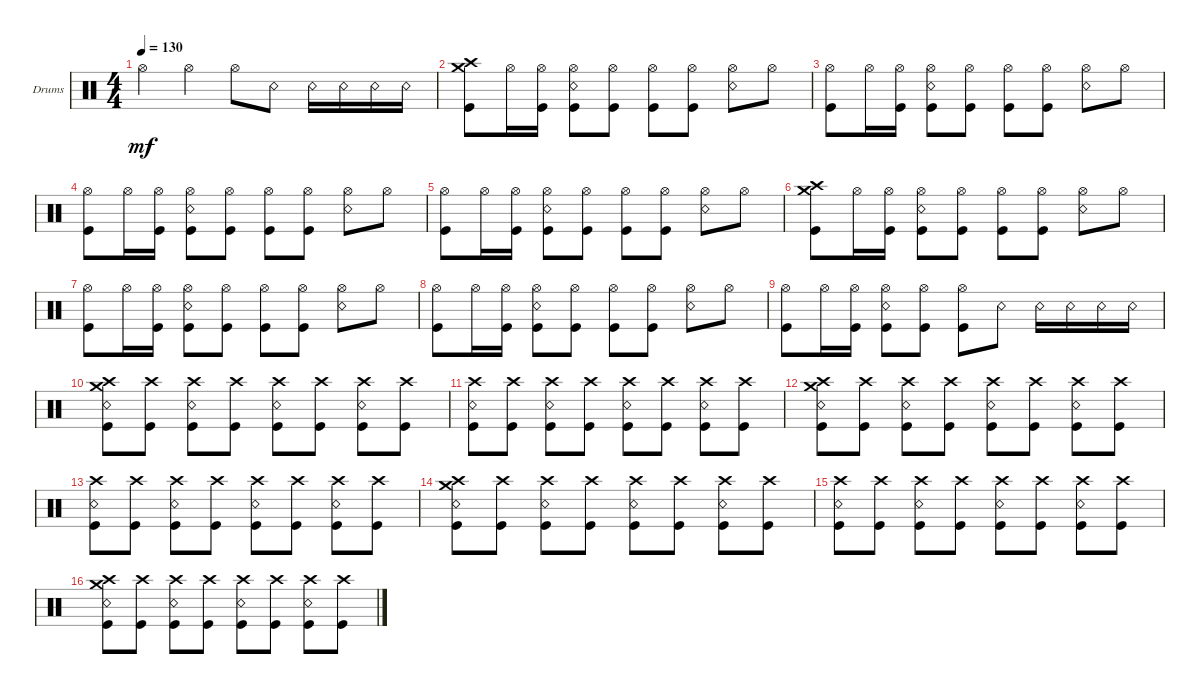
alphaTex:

\defaultSystemsLayout 4
\bracketExtendMode groupsimilarinstruments
\firstSystemTrackNameOrientation horizontal
\otherSystemsTrackNameOrientation horizontal
\track ("Drumkit" "Drums") {instrument percussion}
\staff {score}
\articulation defaults
\ts (4 4)
\tempo 130
\clef neutral
\ks c "Hi-Hat (open)".4{dy mf} "Hi-Hat (open)".4 "Hi-Hat (open)".8 "Snare (rim shot)".8 "Snare (rim shot)".16 "Snare (rim shot)".16 "Snare (rim shot)".16 "Snare (rim shot)".16
|
("Crash medium (hit)" "Crash high (hit)" "Kick (hit)").8 "Hi-Hat (open)".16 ("Hi-Hat (open)" "Kick (hit)").16 ("Hi-Hat (open)" "Kick (hit)" "Snare (rim shot)").8 ("Hi-Hat (open)" "Kick (hit)").8 ("Kick (hit)" "Hi-Hat (open)").8 ("Kick (hit)" "Hi-Hat (open)").8 ("Hi-Hat (open)" "Snare (rim shot)").8 "Hi-Hat (open)".8 |
("Kick (hit)" "Hi-Hat (open)").8 "Hi-Hat (open)".16 ("Hi-Hat (open)" "Kick (hit)").16 ("Hi-Hat (open)" "Kick (hit)" "Snare (rim shot)").8 ("Hi-Hat (open)" "Kick (hit)").8 ("Kick (hit)" "Hi-Hat (open)").8 ("Kick (hit)" "Hi-Hat (open)").8 ("Hi-Hat (open)" "Snare (rim shot)").8 "Hi-Hat (open)".8 |
("Kick (hit)" "Hi-Hat (open)").8 "Hi-Hat (open)".16 ("Hi-Hat (open)" "Kick (hit)").16 ("Hi-Hat (open)" "Kick (hit)" "Snare (rim shot)").8 ("Hi-Hat (open)" "Kick (hit)").8 ("Kick (hit)" "Hi-Hat (open)").8 ("Kick (hit)" "Hi-Hat (open)").8 ("Hi-Hat (open)" "Snare (rim shot)").8 "Hi-Hat (open)".8 |
("Kick (hit)" "Hi-Hat (open)").8 "Hi-Hat (open)".16 ("Hi-Hat (open)" "Kick (hit)").16 ("Hi-Hat (open)" "Kick (hit)" "Snare (rim shot)").8 ("Hi-Hat (open)" "Kick (hit)").8 ("Kick (hit)" "Hi-Hat (open)").8 ("Kick (hit)" "Hi-Hat (open)").8 ("Hi-Hat (open)" "Snare (rim shot)").8 "Hi-Hat (open)".8 |
("Crash medium (hit)" "Crash high (hit)" "Kick (hit)").8 "Hi-Hat (open)".16 ("Hi-Hat (open)" "Kick (hit)").16 ("Hi-Hat (open)" "Kick (hit)" "Snare (rim shot)").8 ("Hi-Hat (open)" "Kick (hit)").8 ("Kick (hit)" "Hi-Hat (open)").8 ("Kick (hit)" "Hi-Hat (open)").8 ("Hi-Hat (open)" "Snare (rim shot)").8 "Hi-Hat (open)".8 |
("Kick (hit)" "Hi-Hat (open)").8 "Hi-Hat (open)".16 ("Hi-Hat (open)" "Kick (hit)").16 ("Hi-Hat (open)" "Kick (hit)" "Snare (rim shot)").8 ("Hi-Hat (open)" "Kick (hit)").8 ("Kick (hit)" "Hi-Hat (open)").8 ("Kick (hit)" "Hi-Hat (open)").8 ("Hi-Hat (open)" "Snare (rim shot)").8 "Hi-Hat (open)".8 |
("Kick (hit)" "Hi-Hat (open)").8 "Hi-Hat (open)".16 ("Hi-Hat (open)" "Kick (hit)").16 ("Hi-Hat (open)" "Kick (hit)" "Snare (rim shot)").8 ("Hi-Hat (open)" "Kick (hit)").8 ("Kick (hit)" "Hi-Hat (open)").8 ("Kick (hit)" "Hi-Hat (open)").8 ("Hi-Hat (open)" "Snare (rim shot)").8 "Hi-Hat (open)".8 |
("Kick (hit)" "Hi-Hat (open)").8 "Hi-Hat (open)".16 ("Hi-Hat (open)" "Kick (hit)").16 ("Hi-Hat (open)" "Kick (hit)" "Snare (rim shot)").8 ("Hi-Hat (open)" "Kick (hit)").8 ("Kick (hit)" "Hi-Hat (open)").8 "Snare (rim shot)".8 "Snare (rim shot)".16 "Snare (rim shot)".16 "Snare (rim shot)".16 "Snare (rim shot)".16 |
("Crash medium (hit)" "Crash high (hit)" "Kick (hit)" "Snare (rim shot)").8 ("Crash high (hit)" "Kick (hit)").8 ("Crash high (hit)" "Kick (hit)" "Snare (rim shot)").8 ("Crash high (hit)" "Kick (hit)").8 ("Crash high (hit)" "Kick (hit)" "Snare (rim shot)").8 ("Crash high (hit)" "Kick (hit)").8 ("Crash high (hit)" "Kick (hit)" "Snare (rim shot)").8 ("Crash high (hit)" "Kick (hit)").8 |
("Crash high (hit)" "Kick (hit)" "Snare (rim shot)").8 ("Crash high (hit)" "Kick (hit)").8 ("Crash high (hit)" "Kick (hit)" "Snare (rim shot)").8 ("Crash high (hit)" "Kick (hit)").8 ("Crash high (hit)" "Kick (hit)" "Snare (rim shot)").8 ("Crash high (hit)" "Kick (hit)").8 ("Crash high (hit)" "Kick (hit)" "Snare (rim shot)").8 ("Crash high (hit)" "Kick (hit)").8 |
("Crash medium (hit)" "Crash high (hit)" "Kick (hit)" "Snare (rim shot)").8 ("Crash high (hit)" "Kick (hit)").8 ("Crash high (hit)" "Kick (hit)" "Snare (rim shot)").8 ("Crash high (hit)" "Kick (hit)").8 ("Crash high (hit)" "Kick (hit)" "Snare (rim shot)").8 ("Crash high (hit)" "Kick (hit)").8 ("Crash high (hit)" "Kick (hit)" "Snare (rim shot)").8 ("Crash high (hit)" "Kick (hit)").8 |
("Crash high (hit)" "Kick (hit)" "Snare (rim shot)").8 ("Crash high (hit)" "Kick (hit)").8 ("Crash high (hit)" "Kick (hit)" "Snare (rim shot)").8 ("Crash high (hit)" "Kick (hit)").8 ("Crash high (hit)" "Kick (hit)" "Snare (rim shot)").8 ("Crash high (hit)" "Kick (hit)").8 ("Crash high (hit)" "Kick (hit)" "Snare (rim shot)").8 ("Crash high (hit)" "Kick (hit)").8 |
("Crash medium (hit)" "Crash high (hit)" "Kick (hit)" "Snare (rim shot)").8 ("Crash high (hit)" "Kick (hit)").8 ("Crash high (hit)" "Kick (hit)" "Snare (rim shot)").8 ("Crash high (hit)" "Kick (hit)").8 ("Crash high (hit)" "Kick (hit)" "Snare (rim shot)").8 ("Crash high (hit)" "Kick (hit)").8 ("Crash high (hit)" "Kick (hit)" "Snare (rim shot)").8 ("Crash high (hit)" "Kick (hit)").8 |
("Crash high (hit)" "Kick (hit)" "Snare (rim shot)").8 ("Crash high (hit)" "Kick (hit)").8 ("Crash high (hit)" "Kick (hit)" "Snare (rim shot)").8 ("Crash high (hit)" "Kick (hit)").8 ("Crash high (hit)" "Kick (hit)" "Snare (rim shot)").8 ("Crash high (hit)" "Kick (hit)").8 ("Crash high (hit)" "Kick (hit)" "Snare (rim shot)").8 ("Crash high (hit)" "Kick (hit)").8 |
("Crash medium (hit)" "Crash high (hit)" "Kick (hit)" "Snare (rim shot)").8 ("Crash high (hit)" "Kick (hit)").8 ("Crash high (hit)" "Kick (hit)" "Snare (rim shot)").8 ("Crash high (hit)" "Kick (hit)").8 ("Crash high (hit)" "Kick (hit)" "Snare (rim shot)").8 ("Crash high (hit)" "Kick (hit)").8 ("Crash high (hit)" "Kick (hit)" "Snare (rim shot)").8 ("Crash high (hit)" "Kick (hit)").8
